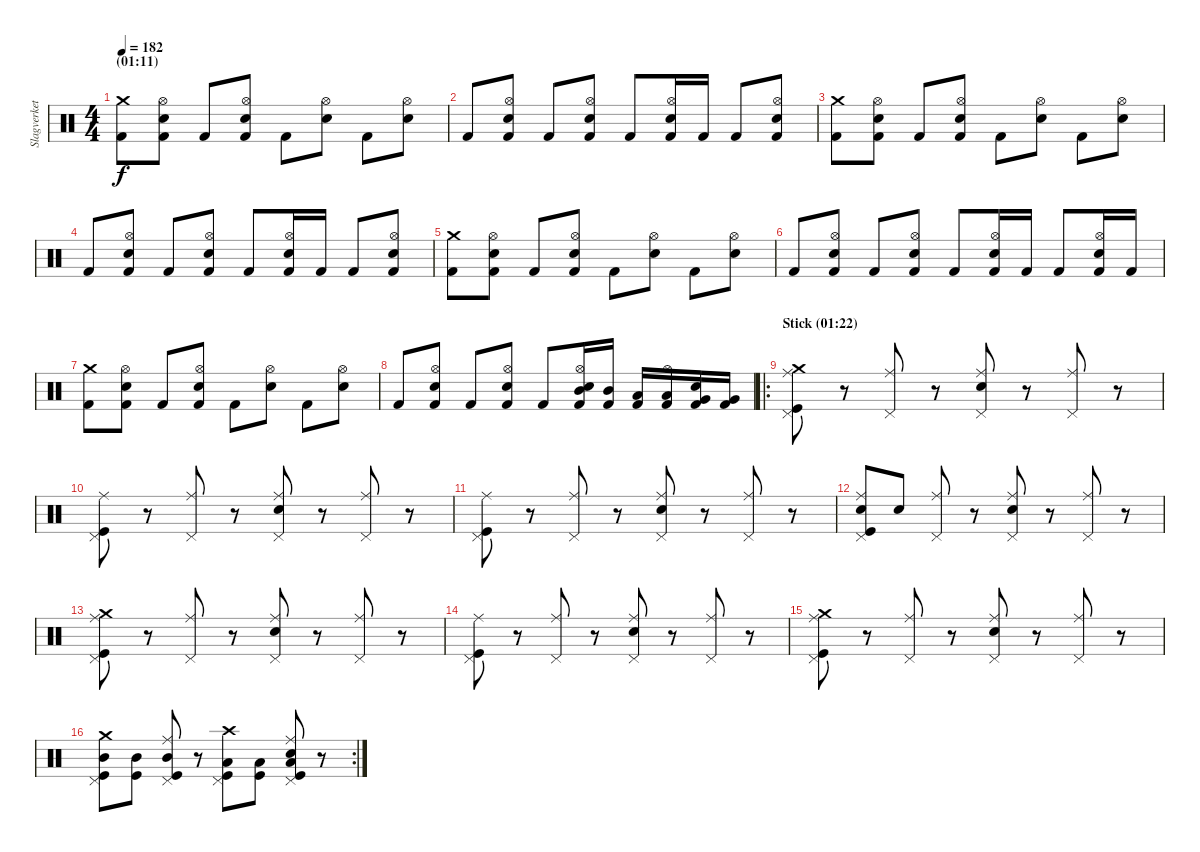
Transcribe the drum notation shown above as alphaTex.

\track ("Slagverket! =)" "Slagverket") {instrument percussion}
\staff {score}
\articulation defaults
\ts (4 4)
\section ("" "(01:11)")
\tempo 182
\clef neutral
\ks c
("Crash medium (hit)" "Kick (hit) 2").8{dy f} ("Hi-Hat (open)" "Snare (hit) 2" "Kick (hit) 2").8 "Kick (hit) 2".8 ("Hi-Hat (open)" "Snare (hit) 2" "Kick (hit) 2").8 "Kick (hit) 2".8 ("Hi-Hat (open)" "Snare (hit) 2").8 "Kick (hit) 2".8 ("Hi-Hat (open)" "Snare (hit) 2").8 |
"Kick (hit) 2".8 ("Hi-Hat (open)" "Snare (hit) 2" "Kick (hit) 2").8 "Kick (hit) 2".8 ("Hi-Hat (open)" "Snare (hit) 2" "Kick (hit) 2").8 "Kick (hit) 2".8 ("Hi-Hat (open)" "Snare (hit) 2" "Kick (hit) 2").16 "Kick (hit) 2".16 "Kick (hit) 2".8 ("Hi-Hat (open)" "Snare (hit) 2" "Kick (hit) 2").8 |
("Crash medium (hit)" "Kick (hit) 2").8 ("Hi-Hat (open)" "Snare (hit) 2" "Kick (hit) 2").8 "Kick (hit) 2".8 ("Hi-Hat (open)" "Snare (hit) 2" "Kick (hit) 2").8 "Kick (hit) 2".8 ("Hi-Hat (open)" "Snare (hit) 2").8 "Kick (hit) 2".8 ("Hi-Hat (open)" "Snare (hit) 2").8 |
"Kick (hit) 2".8 ("Hi-Hat (open)" "Snare (hit) 2" "Kick (hit) 2").8 "Kick (hit) 2".8 ("Hi-Hat (open)" "Snare (hit) 2" "Kick (hit) 2").8 "Kick (hit) 2".8 ("Hi-Hat (open)" "Snare (hit) 2" "Kick (hit) 2").16 "Kick (hit) 2".16 "Kick (hit) 2".8 ("Hi-Hat (open)" "Snare (hit) 2" "Kick (hit) 2").8 |
("Crash medium (hit)" "Kick (hit) 2").8 ("Hi-Hat (open)" "Snare (hit) 2" "Kick (hit) 2").8 "Kick (hit) 2".8 ("Hi-Hat (open)" "Snare (hit) 2" "Kick (hit) 2").8 "Kick (hit) 2".8 ("Hi-Hat (open)" "Snare (hit) 2").8 "Kick (hit) 2".8 ("Hi-Hat (open)" "Snare (hit) 2").8 |
"Kick (hit) 2".8 ("Hi-Hat (open)" "Snare (hit) 2" "Kick (hit) 2").8 "Kick (hit) 2".8 ("Hi-Hat (open)" "Snare (hit) 2" "Kick (hit) 2").8 "Kick (hit) 2".8 ("Hi-Hat (open)" "Snare (hit) 2" "Kick (hit) 2").16 "Kick (hit) 2".16 "Kick (hit) 2".8 ("Hi-Hat (open)" "Snare (hit) 2" "Kick (hit) 2").16 "Kick (hit) 2".16 |
("Crash medium (hit)" "Kick (hit) 2").8 ("Hi-Hat (open)" "Snare (hit) 2" "Kick (hit) 2").8 "Kick (hit) 2".8 ("Hi-Hat (open)" "Snare (hit) 2" "Kick (hit) 2").8 "Kick (hit) 2".8 ("Hi-Hat (open)" "Snare (hit) 2").8 "Kick (hit) 2".8 ("Hi-Hat (open)" "Snare (hit) 2").8 |
"Kick (hit) 2".8 ("Hi-Hat (open)" "Snare (hit) 2" "Kick (hit) 2").8 "Kick (hit) 2".8 ("Hi-Hat (open)" "Snare (hit) 2" "Kick (hit) 2").8 "Kick (hit) 2".8 ("Hi-Hat (open)" "Mid Tom (hit)" "Snare (hit) 2" "Kick (hit) 2").16 ("Mid Tom (hit)" "Kick (hit) 2").16 ("Low Tom (hit)" "Kick (hit) 2").16 ("Hi-Hat (open)" "Low Tom (hit)" "Kick (hit) 2").16 ("Very Low Tom (hit)" "Snare (hit) 2" "Kick (hit) 2").16 ("Very Low Tom (hit)" "Kick (hit) 2").16 |
\ro
\section ("" "Stick (01:22)")
("Ride (middle)" "Pedal Hi-Hat (hit)" "Crash medium (hit)" "Kick (hit)").8 r.8 ("Ride (middle)" "Pedal Hi-Hat (hit)").8 r.8 ("Ride (middle)" "Pedal Hi-Hat (hit)" "Snare (hit) 2").8 r.8 ("Ride (middle)" "Pedal Hi-Hat (hit)").8 r.8 |
("Ride (middle)" "Pedal Hi-Hat (hit)" "Kick (hit)").8 r.8 ("Ride (middle)" "Pedal Hi-Hat (hit)").8 r.8 ("Ride (middle)" "Pedal Hi-Hat (hit)" "Snare (hit) 2").8 r.8 ("Ride (middle)" "Pedal Hi-Hat (hit)").8 r.8 |
("Ride (middle)" "Pedal Hi-Hat (hit)" "Kick (hit)").8 r.8 ("Ride (middle)" "Pedal Hi-Hat (hit)").8 r.8 ("Ride (middle)" "Pedal Hi-Hat (hit)" "Snare (hit) 2").8 r.8 ("Ride (middle)" "Pedal Hi-Hat (hit)").8 r.8 |
("Ride (middle)" "Pedal Hi-Hat (hit)" "Snare (hit) 2" "Kick (hit)").8 "Snare (hit) 2".8 ("Ride (middle)" "Pedal Hi-Hat (hit)").8 r.8 ("Ride (middle)" "Pedal Hi-Hat (hit)" "Snare (hit) 2").8 r.8 ("Ride (middle)" "Pedal Hi-Hat (hit)").8 r.8 |
("Ride (middle)" "Pedal Hi-Hat (hit)" "Crash medium (hit)" "Kick (hit)").8 r.8 ("Ride (middle)" "Pedal Hi-Hat (hit)").8 r.8 ("Ride (middle)" "Pedal Hi-Hat (hit)" "Snare (hit) 2").8 r.8 ("Ride (middle)" "Pedal Hi-Hat (hit)").8 r.8 |
("Ride (middle)" "Pedal Hi-Hat (hit)" "Kick (hit)").8 r.8 ("Ride (middle)" "Pedal Hi-Hat (hit)").8 r.8 ("Ride (middle)" "Pedal Hi-Hat (hit)" "Snare (hit) 2").8 r.8 ("Ride (middle)" "Pedal Hi-Hat (hit)").8 r.8 |
("Ride (middle)" "Pedal Hi-Hat (hit)" "Crash medium (hit)" "Kick (hit)").8 r.8 ("Ride (middle)" "Pedal Hi-Hat (hit)").8 r.8 ("Ride (middle)" "Pedal Hi-Hat (hit)" "Snare (hit) 2").8 r.8 ("Ride (middle)" "Pedal Hi-Hat (hit)").8 r.8 |
\rc 2
("Crash medium (hit)" "Pedal Hi-Hat (hit)" "Mid Tom (hit)" "Kick (hit)").8 ("Mid Tom (hit)" "Kick (hit)").8 ("Ride (middle)" "Pedal Hi-Hat (hit)" "Mid Tom (hit)" "Kick (hit)").8 r.8 ("Crash high (hit)" "Pedal Hi-Hat (hit)" "Kick (hit)" "Low Tom (hit)").8 ("Kick (hit)" "Low Tom (hit)").8 ("Ride (middle)" "Pedal Hi-Hat (hit)" "Snare (hit) 2" "Kick (hit)" "Low Tom (hit)").8 r.8
